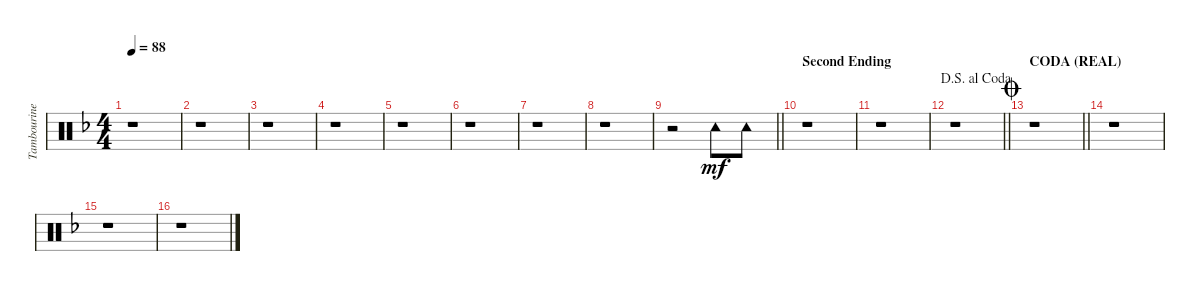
\track ("Tambourine" "Tambourine") {instrument percussion}
\staff {score}
\articulation defaults
\ts (4 4)
\tempo 88
\clef neutral
\ks dminor
r.1{dy mf} |
r.1 |
r.1 |
r.1 |
r.1 |
r.1 |
r.1 |
r.1 |
\barLineRight lightlight
r.2 "Tambourine (hit)".8 "Tambourine (hit)".8 |
\section ("" "Second Ending")
r.1 |
r.1 |
\jump dalsegnoalcoda
\barLineRight lightlight
r.1 |
\section ("" "CODA (REAL)")
\jump coda
\barLineRight lightlight
r.1 |
r.1 |
r.1 |
r.1
